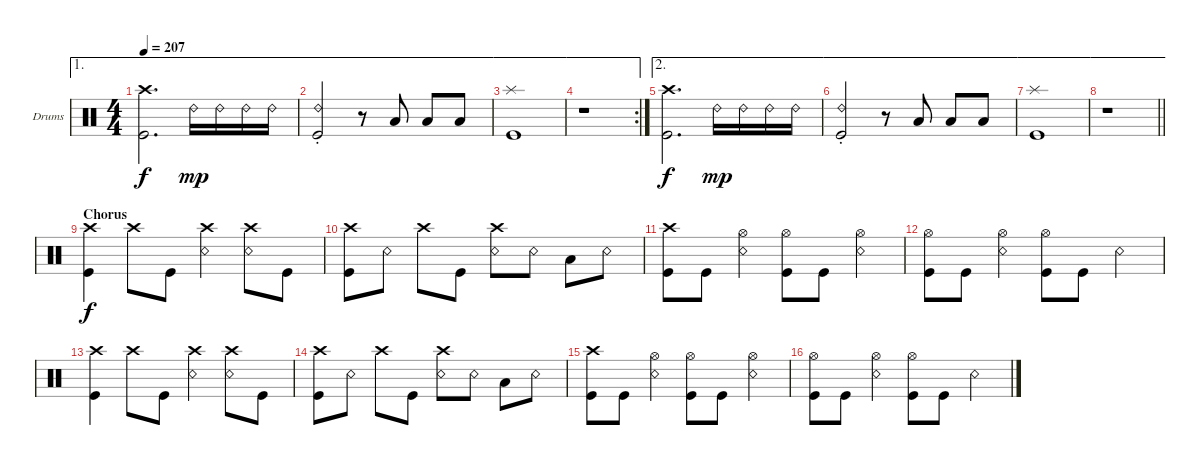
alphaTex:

\defaultSystemsLayout 4
\bracketExtendMode groupsimilarinstruments
\firstSystemTrackNameOrientation horizontal
\otherSystemsTrackNameOrientation horizontal
\track ("Drums" "Drums") {instrument percussion}
\staff {score}
\articulation defaults
\ae 1
\ts (4 4)
\tempo 207
\clef neutral
\ks c
("Kick (hit)" "Crash high (hit)").2{d dy f} "Ride (bell) 2".16{dy mp} "Ride (bell) 2".16 "Ride (bell) 2".16 "Ride (bell) 2".16 |
\ae 1
("Ride (bell) 2"{st} "Kick (hit)"{st}).2 r.8 "Low Tom (hit)".8 "Low Tom (hit)".8 "Low Tom (hit)".8 |
\ae 1
("Kick (hit)" "Splash (hit)").1 |
\ae 1
\rc 2
r.1 |
\ae 2
("Kick (hit)" "Crash high (hit)").2{d dy f} "Ride (bell) 2".16{dy mp} "Ride (bell) 2".16 "Ride (bell) 2".16 "Ride (bell) 2".16 |
\ae 2
("Ride (bell) 2"{st} "Kick (hit)"{st}).2 r.8 "Low Tom (hit)".8 "Low Tom (hit)".8 "Low Tom (hit)".8 |
\ae 2
("Kick (hit)" "Splash (hit)").1 |
\ae 2
\barLineRight lightlight
r.1 |
\section ("" "Chorus")
("Kick (hit)" "Crash high (hit)").4{dy f} "Crash high (hit)".8 "Kick (hit)".8 ("Snare (rim shot)" "Crash high (hit)").4 ("Snare (rim shot)" "Crash high (hit)").8 "Kick (hit)".8 |
("Kick (hit)" "Crash high (hit)").8 "Snare (rim shot)".8 "Crash high (hit)".8 "Kick (hit)".8 ("Snare (rim shot)" "Crash high (hit)").8 "Snare (rim shot)".8 "Low Tom (hit)".8 "Snare (rim shot)".8 |
("Kick (hit)" "Crash high (hit)").8 "Kick (hit)".8 ("Snare (rim shot)" "Hi-Hat (open)").4 ("Kick (hit)" "Hi-Hat (open)").8 "Kick (hit)".8 ("Snare (rim shot)" "Hi-Hat (open)").4 |
("Kick (hit)" "Hi-Hat (open)").8 "Kick (hit)".8 ("Snare (rim shot)" "Hi-Hat (open)").4 ("Kick (hit)" "Hi-Hat (open)").8 "Kick (hit)".8 "Snare (rim shot)".4 |
("Kick (hit)" "Crash high (hit)").4 "Crash high (hit)".8 "Kick (hit)".8 ("Snare (rim shot)" "Crash high (hit)").4 ("Snare (rim shot)" "Crash high (hit)").8 "Kick (hit)".8 |
("Kick (hit)" "Crash high (hit)").8 "Snare (rim shot)".8 "Crash high (hit)".8 "Kick (hit)".8 ("Snare (rim shot)" "Crash high (hit)").8 "Snare (rim shot)".8 "Low Tom (hit)".8 "Snare (rim shot)".8 |
("Kick (hit)" "Crash high (hit)").8 "Kick (hit)".8 ("Snare (rim shot)" "Hi-Hat (open)").4 ("Kick (hit)" "Hi-Hat (open)").8 "Kick (hit)".8 ("Snare (rim shot)" "Hi-Hat (open)").4 |
("Kick (hit)" "Hi-Hat (open)").8 "Kick (hit)".8 ("Snare (rim shot)" "Hi-Hat (open)").4 ("Kick (hit)" "Hi-Hat (open)").8 "Kick (hit)".8 "Snare (rim shot)".4
